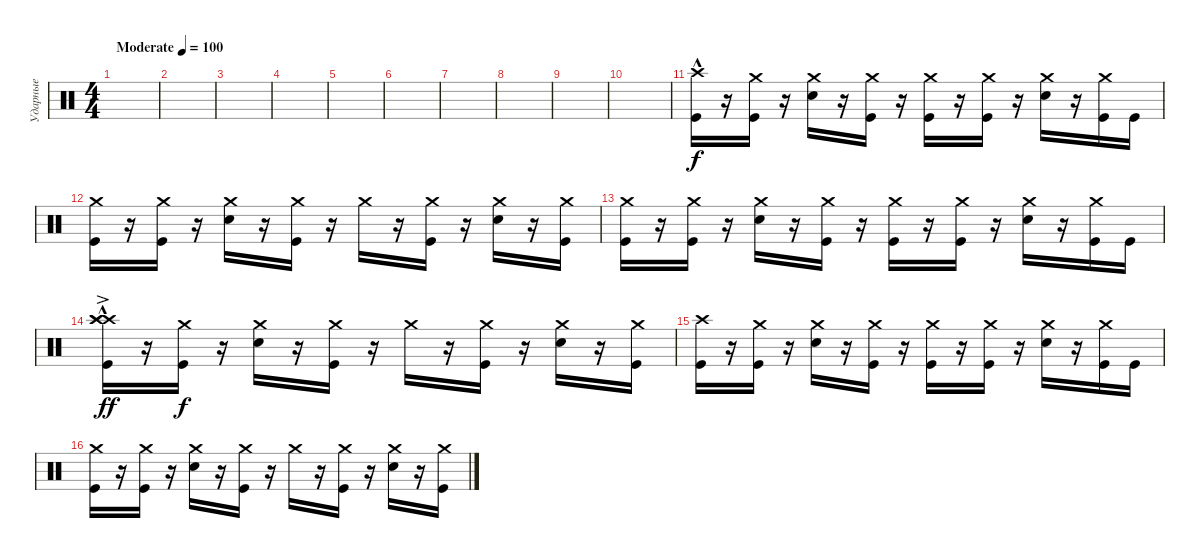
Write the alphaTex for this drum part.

\track ("Ударные" "Ударные") {instrument percussion}
\staff {score}
\articulation defaults
\ts (4 4)
\tempo (100 "Moderate")
\clef neutral
\ks c
|
|
|
|
|
|
|
|
|
|
("Crash high (hit)"{hac} "Kick (hit)").16 r.16 ("Crash medium (hit)" "Kick (hit)").16{dy f} r.16 ("Crash medium (hit)" "Electric Snare (hit)").16 r.16 ("Crash medium (hit)" "Kick (hit)").16 r.16 ("Crash medium (hit)" "Kick (hit)").16 r.16 ("Crash medium (hit)" "Kick (hit)").16 r.16 ("Crash medium (hit)" "Electric Snare (hit)").16 r.16 ("Crash medium (hit)" "Kick (hit)").16 "Kick (hit)".16 |
("Crash medium (hit)" "Kick (hit)").16 r.16 ("Crash medium (hit)" "Kick (hit)").16 r.16 ("Crash medium (hit)" "Electric Snare (hit)").16 r.16 ("Crash medium (hit)" "Kick (hit)").16 r.16 "Crash medium (hit)".16 r.16 ("Crash medium (hit)" "Kick (hit)").16 r.16 ("Crash medium (hit)" "Electric Snare (hit)").16 r.16 ("Crash medium (hit)" "Kick (hit)").16 |
("Crash medium (hit)" "Kick (hit)").16 r.16 ("Crash medium (hit)" "Kick (hit)").16 r.16 ("Crash medium (hit)" "Electric Snare (hit)").16 r.16 ("Crash medium (hit)" "Kick (hit)").16 r.16 ("Crash medium (hit)" "Kick (hit)").16 r.16 ("Crash medium (hit)" "Kick (hit)").16 r.16 ("Crash medium (hit)" "Electric Snare (hit)").16 r.16 ("Crash medium (hit)" "Kick (hit)").16 "Kick (hit)".16 |
("Crash high (hit)"{hac} "Crash high (hit)" "Crash high (hit)"{ac} "Kick (hit)").16{dy ff} r.16 ("Crash medium (hit)" "Kick (hit)").16{dy f} r.16 ("Crash medium (hit)" "Electric Snare (hit)").16 r.16 ("Crash medium (hit)" "Kick (hit)").16 r.16 "Crash medium (hit)".16 r.16 ("Crash medium (hit)" "Kick (hit)").16 r.16 ("Crash medium (hit)" "Electric Snare (hit)").16 r.16 ("Crash medium (hit)" "Kick (hit)").16 |
("Crash high (hit)" "Kick (hit)").16 r.16 ("Crash medium (hit)" "Kick (hit)").16 r.16 ("Crash medium (hit)" "Electric Snare (hit)").16 r.16 ("Crash medium (hit)" "Kick (hit)").16 r.16 ("Crash medium (hit)" "Kick (hit)").16 r.16 ("Crash medium (hit)" "Kick (hit)").16 r.16 ("Crash medium (hit)" "Electric Snare (hit)").16 r.16 ("Crash medium (hit)" "Kick (hit)").16 "Kick (hit)".16 |
("Crash medium (hit)" "Kick (hit)").16 r.16 ("Crash medium (hit)" "Kick (hit)").16 r.16 ("Crash medium (hit)" "Electric Snare (hit)").16 r.16 ("Crash medium (hit)" "Kick (hit)").16 r.16 "Crash medium (hit)".16 r.16 ("Crash medium (hit)" "Kick (hit)").16 r.16 ("Crash medium (hit)" "Electric Snare (hit)").16 r.16 ("Crash medium (hit)" "Kick (hit)").16
